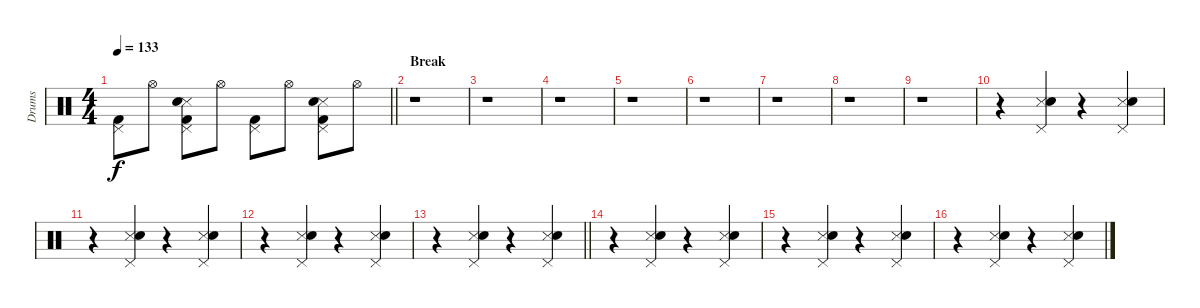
\track ("Drums" "Drums") {instrument percussion}
\staff {score}
\articulation defaults
\ts (4 4)
\tempo 133
\clef neutral
\barLineRight lightlight
\ks c
("Pedal Hi-Hat (hit)" "Kick (hit) 2").8{dy f} "Hi-Hat (open)".8 ("Snare (side stick) 3" "Hand Clap (hit)" "Pedal Hi-Hat (hit)" "Kick (hit) 2").8 "Hi-Hat (open)".8 ("Pedal Hi-Hat (hit)" "Kick (hit) 2").8 "Hi-Hat (open)".8 ("Snare (side stick) 3" "Hand Clap (hit)" "Pedal Hi-Hat (hit)" "Kick (hit) 2").8 "Hi-Hat (open)".8 |
\section ("" "Break")
r.1 |
r.1 |
r.1 |
r.1 |
r.1 |
r.1 |
r.1 |
r.1 |
r.4 ("Snare (side stick) 3" "Hand Clap (hit)" "Pedal Hi-Hat (hit)").4 r.4 ("Snare (side stick) 3" "Hand Clap (hit)" "Pedal Hi-Hat (hit)").4 |
r.4 ("Snare (side stick) 3" "Hand Clap (hit)" "Pedal Hi-Hat (hit)").4 r.4 ("Snare (side stick) 3" "Hand Clap (hit)" "Pedal Hi-Hat (hit)").4 |
r.4 ("Snare (side stick) 3" "Hand Clap (hit)" "Pedal Hi-Hat (hit)").4 r.4 ("Snare (side stick) 3" "Hand Clap (hit)" "Pedal Hi-Hat (hit)").4 |
\barLineRight lightlight
r.4 ("Snare (side stick) 3" "Hand Clap (hit)" "Pedal Hi-Hat (hit)").4 r.4 ("Snare (side stick) 3" "Hand Clap (hit)" "Pedal Hi-Hat (hit)").4 |
r.4 ("Snare (side stick) 3" "Hand Clap (hit)" "Pedal Hi-Hat (hit)").4 r.4 ("Snare (side stick) 3" "Hand Clap (hit)" "Pedal Hi-Hat (hit)").4 |
r.4 ("Snare (side stick) 3" "Hand Clap (hit)" "Pedal Hi-Hat (hit)").4 r.4 ("Snare (side stick) 3" "Hand Clap (hit)" "Pedal Hi-Hat (hit)").4 |
r.4 ("Snare (side stick) 3" "Hand Clap (hit)" "Pedal Hi-Hat (hit)").4 r.4 ("Snare (side stick) 3" "Hand Clap (hit)" "Pedal Hi-Hat (hit)").4
